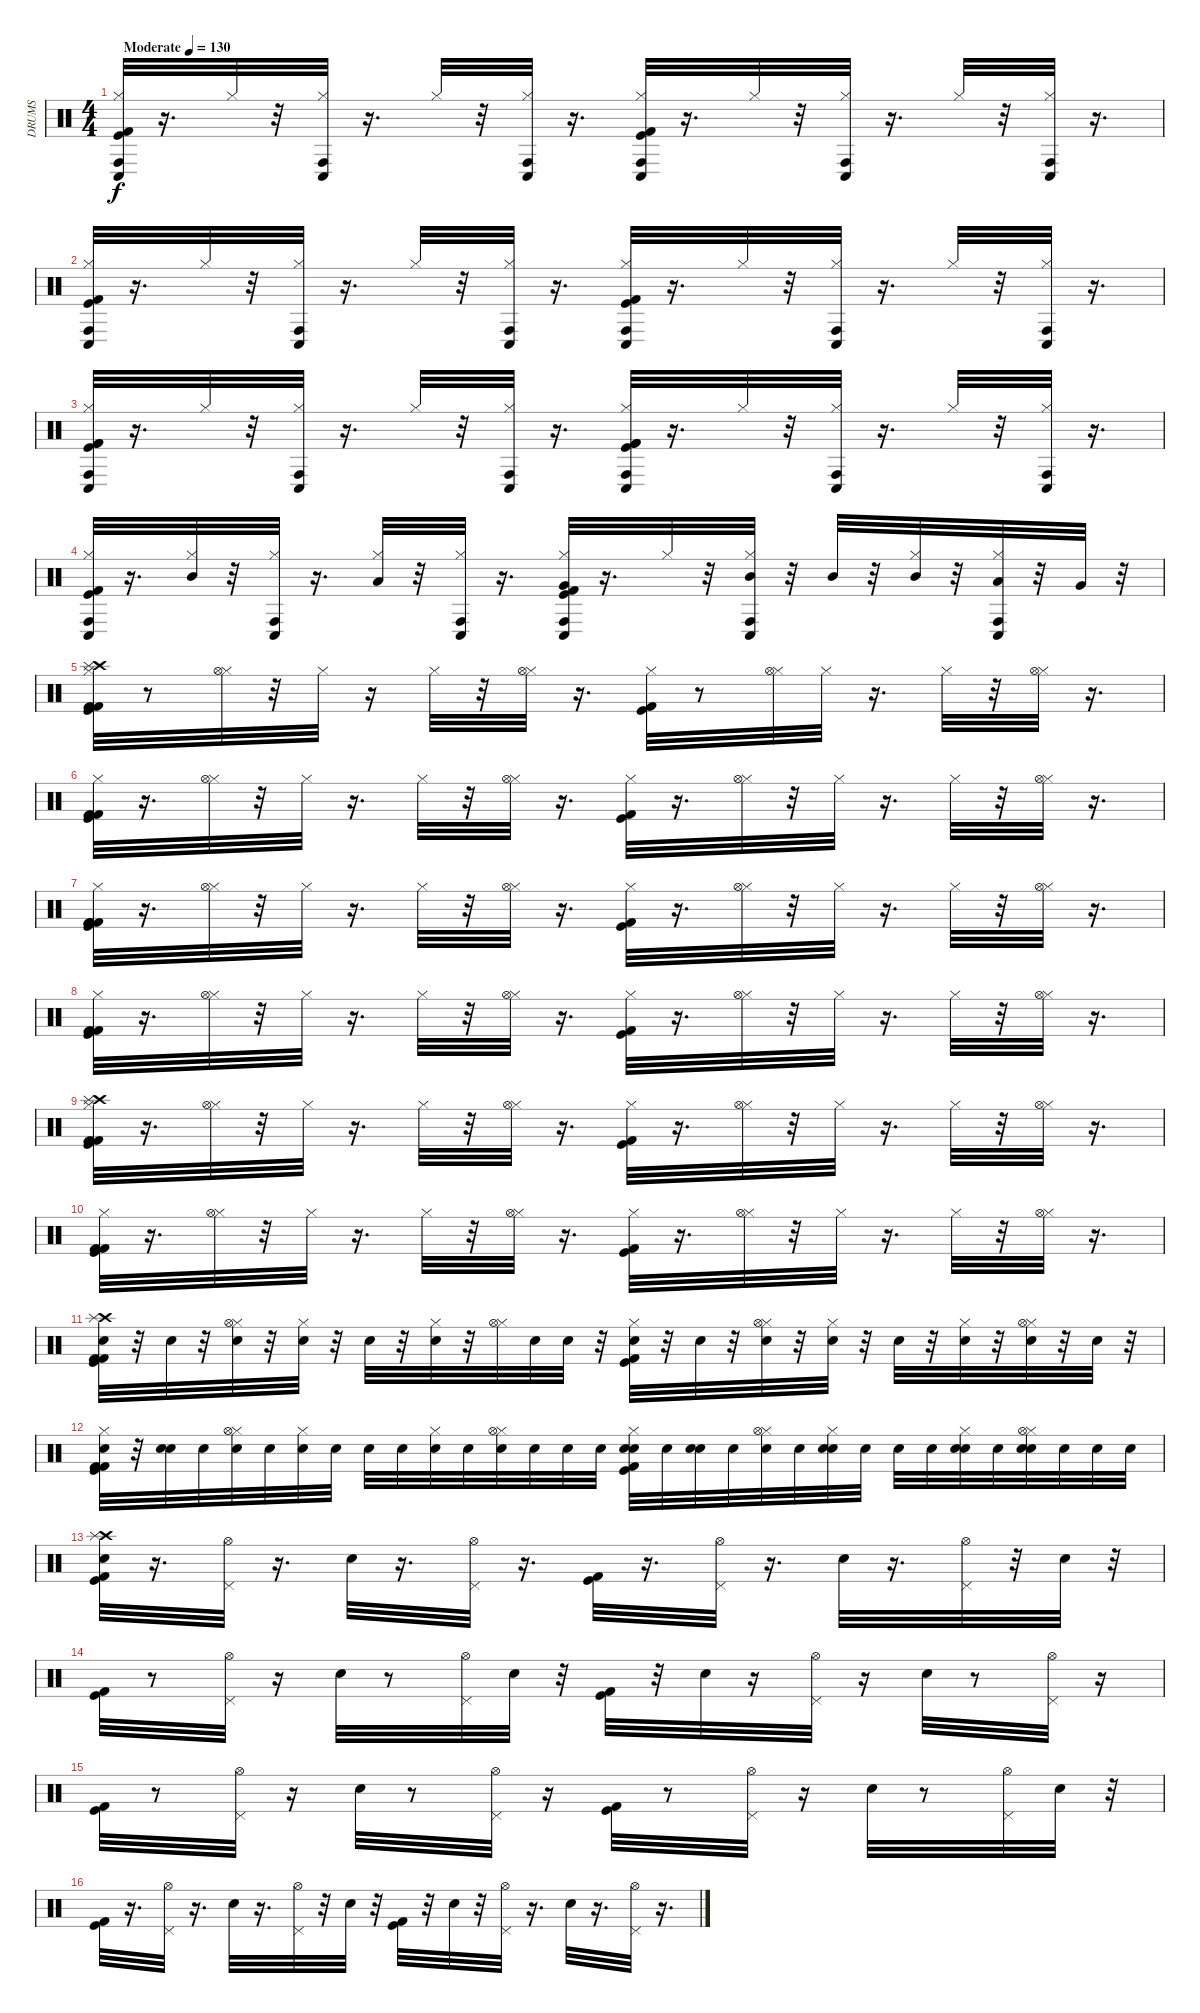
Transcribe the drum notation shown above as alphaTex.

\track ("DRUMS" "DRUMS") {instrument percussion}
\staff {score}
\articulation defaults
\ts (4 4)
\tempo (130 "Moderate")
\clef neutral
\ks c
("Kick (hit) 2" "Kick (hit)" "Conga low (hit)" "Conga high (hit)" "Hi-Hat (closed)").32{dy f} r.16{d} "Hi-Hat (closed)".32 r.32 ("Hi-Hat (closed)" "Conga low (hit)" "Conga high (hit)").32 r.16{d} "Hi-Hat (closed)".32 r.32 ("Hi-Hat (closed)" "Conga low (hit)" "Conga high (hit)").32 r.16{d} ("Kick (hit) 2" "Kick (hit)" "Hi-Hat (closed)" "Conga high (hit)" "Conga low (hit)").32 r.16{d} "Hi-Hat (closed)".32 r.32 ("Hi-Hat (closed)" "Conga low (hit)" "Conga high (hit)").32 r.16{d} "Hi-Hat (closed)".32 r.32 ("Hi-Hat (closed)" "Conga low (hit)" "Conga high (hit)").32 r.16{d} |
("Kick (hit) 2" "Kick (hit)" "Conga low (hit)" "Conga high (hit)" "Hi-Hat (closed)").32 r.16{d} "Hi-Hat (closed)".32 r.32 ("Hi-Hat (closed)" "Conga low (hit)" "Conga high (hit)").32 r.16{d} "Hi-Hat (closed)".32 r.32 ("Hi-Hat (closed)" "Conga low (hit)" "Conga high (hit)").32 r.16{d} ("Kick (hit) 2" "Kick (hit)" "Hi-Hat (closed)" "Conga high (hit)" "Conga low (hit)").32 r.16{d} "Hi-Hat (closed)".32 r.32 ("Hi-Hat (closed)" "Conga low (hit)" "Conga high (hit)").32 r.16{d} "Hi-Hat (closed)".32 r.32 ("Hi-Hat (closed)" "Conga low (hit)" "Conga high (hit)").32 r.16{d} |
("Kick (hit) 2" "Kick (hit)" "Kick (hit) 2" "Conga low (hit)" "Conga high (hit)" "Hi-Hat (closed)").32 r.16{d} "Hi-Hat (closed)".32 r.32 ("Hi-Hat (closed)" "Conga low (hit)" "Conga high (hit)").32 r.16{d} "Hi-Hat (closed)".32 r.32 ("Hi-Hat (closed)" "Conga low (hit)" "Conga high (hit)").32 r.16{d} ("Kick (hit) 2" "Kick (hit) 2" "Kick (hit)" "Hi-Hat (closed)" "Conga high (hit)" "Conga low (hit)").32 r.16{d} "Hi-Hat (closed)".32 r.32 ("Hi-Hat (closed)" "Conga low (hit)" "Conga high (hit)").32 r.16{d} "Hi-Hat (closed)".32 r.32 ("Hi-Hat (closed)" "Conga low (hit)" "Conga high (hit)").32 r.16{d} |
("Kick (hit)" "Kick (hit) 2" "Conga low (hit)" "Conga high (hit)" "Hi-Hat (closed)").32 r.16{d} ("Mid Tom (hit)" "Hi-Hat (closed)").32 r.32 ("Hi-Hat (closed)" "Conga low (hit)" "Conga high (hit)").32 r.16{d} ("Low Tom (hit)" "Hi-Hat (closed)").32 r.32 ("Hi-Hat (closed)" "Conga low (hit)" "Conga high (hit)").32 r.16{d} ("Kick (hit) 2" "Kick (hit)" "Hi-Hat (closed)" "Very Low Tom (hit)" "Conga high (hit)" "Conga low (hit)").32 r.16{d} "Hi-Hat (closed)".32 r.32 ("Hi-Hat (closed)" "Conga low (hit)" "Conga high (hit)" "Mid Tom (hit)").32 r.32 "Mid Tom (hit)".32 r.32 ("Mid Tom (hit)" "Hi-Hat (closed)").32 r.32 ("Low Tom (hit)" "Hi-Hat (closed)" "Conga low (hit)" "Conga high (hit)").32 r.32 "Very Low Tom (hit)".32 r.32 |
("Kick (hit) 2" "Kick (hit)" "Kick (hit) 2" "Crash high (hit)" "Splash (hit)" "Hi-Hat (closed)").32 r.8 ("Hi-Hat (closed)" "Hi-Hat (open)").32 r.32 "Hi-Hat (closed)".32 r.16 "Hi-Hat (closed)".32 r.32 ("Hi-Hat (closed)" "Hi-Hat (open)").32 r.16{d} ("Kick (hit) 2" "Kick (hit)" "Hi-Hat (closed)").32 r.8 ("Hi-Hat (closed)" "Hi-Hat (open)").32 "Hi-Hat (closed)".32 r.16{d} "Hi-Hat (closed)".32 r.32 ("Hi-Hat (closed)" "Hi-Hat (open)").32 r.16{d} |
("Kick (hit) 2" "Kick (hit)" "Kick (hit) 2" "Hi-Hat (closed)").32 r.16{d} ("Hi-Hat (closed)" "Hi-Hat (open)").32 r.32 "Hi-Hat (closed)".32 r.16{d} "Hi-Hat (closed)".32 r.32 ("Hi-Hat (closed)" "Hi-Hat (open)").32 r.16{d} ("Kick (hit) 2" "Kick (hit)" "Hi-Hat (closed)").32 r.16{d} ("Hi-Hat (closed)" "Hi-Hat (open)").32 r.32 "Hi-Hat (closed)".32 r.16{d} "Hi-Hat (closed)".32 r.32 ("Hi-Hat (closed)" "Hi-Hat (open)").32 r.16{d} |
("Kick (hit) 2" "Kick (hit) 2" "Kick (hit)" "Kick (hit) 2" "Hi-Hat (closed)").32 r.16{d} ("Hi-Hat (closed)" "Hi-Hat (open)").32 r.32 "Hi-Hat (closed)".32 r.16{d} "Hi-Hat (closed)".32 r.32 ("Hi-Hat (closed)" "Hi-Hat (open)").32 r.16{d} ("Kick (hit) 2" "Kick (hit)" "Hi-Hat (closed)").32 r.16{d} ("Hi-Hat (closed)" "Hi-Hat (open)").32 r.32 "Hi-Hat (closed)".32 r.16{d} "Hi-Hat (closed)".32 r.32 ("Hi-Hat (closed)" "Hi-Hat (open)").32 r.16{d} |
("Kick (hit) 2" "Kick (hit)" "Kick (hit) 2" "Hi-Hat (closed)").32 r.16{d} ("Hi-Hat (closed)" "Hi-Hat (open)").32 r.32 "Hi-Hat (closed)".32 r.16{d} "Hi-Hat (closed)".32 r.32 ("Hi-Hat (closed)" "Hi-Hat (open)").32 r.16{d} ("Kick (hit) 2" "Kick (hit)" "Hi-Hat (closed)").32 r.16{d} ("Hi-Hat (closed)" "Hi-Hat (open)").32 r.32 "Hi-Hat (closed)".32 r.16{d} "Hi-Hat (closed)".32 r.32 ("Hi-Hat (closed)" "Hi-Hat (open)").32 r.16{d} |
("Kick (hit) 2" "Kick (hit)" "Kick (hit) 2" "Crash high (hit)" "Splash (hit)" "Hi-Hat (closed)").32 r.16{d} ("Hi-Hat (closed)" "Hi-Hat (open)").32 r.32 "Hi-Hat (closed)".32 r.16{d} "Hi-Hat (closed)".32 r.32 ("Hi-Hat (closed)" "Hi-Hat (open)").32 r.16{d} ("Kick (hit) 2" "Kick (hit)" "Hi-Hat (closed)").32 r.16{d} ("Hi-Hat (closed)" "Hi-Hat (open)").32 r.32 "Hi-Hat (closed)".32 r.16{d} "Hi-Hat (closed)".32 r.32 ("Hi-Hat (closed)" "Hi-Hat (open)").32 r.16{d} |
("Kick (hit) 2" "Kick (hit)" "Kick (hit) 2" "Hi-Hat (closed)").32 r.16{d} ("Hi-Hat (closed)" "Hi-Hat (open)").32 r.32 "Hi-Hat (closed)".32 r.16{d} "Hi-Hat (closed)".32 r.32 ("Hi-Hat (closed)" "Hi-Hat (open)").32 r.16{d} ("Kick (hit) 2" "Kick (hit)" "Hi-Hat (closed)").32 r.16{d} ("Hi-Hat (closed)" "Hi-Hat (open)").32 r.32 "Hi-Hat (closed)".32 r.16{d} "Hi-Hat (closed)".32 r.32 ("Hi-Hat (closed)" "Hi-Hat (open)").32 r.16{d} |
("Kick (hit) 2" "Kick (hit)" "Kick (hit) 2" "Crash high (hit)" "Splash (hit)" "Snare (hit) 2").32 r.32 "Snare (hit) 2".32 r.32 ("Snare (hit) 2" "Hi-Hat (closed)" "Hi-Hat (open)").32 r.32 ("Snare (hit) 2" "Hi-Hat (closed)").32 r.32 "Snare (hit) 2".32 r.32 ("Hi-Hat (closed)" "Snare (hit) 2").32 r.32 ("Hi-Hat (closed)" "Hi-Hat (open)").32 "Snare (hit) 2".32 "Snare (hit) 2".32 r.32 ("Kick (hit) 2" "Kick (hit)" "Hi-Hat (closed)" "Snare (hit) 2").32 r.32 "Snare (hit) 2".32 r.32 ("Hi-Hat (closed)" "Hi-Hat (open)" "Snare (hit) 2").32 r.32 ("Hi-Hat (closed)" "Snare (hit) 2").32 r.32 "Snare (hit) 2".32 r.32 ("Hi-Hat (closed)" "Snare (hit) 2").32 r.32 ("Hi-Hat (closed)" "Hi-Hat (open)" "Snare (hit) 2").32 r.32 "Snare (hit) 2".32 r.32 |
("Kick (hit) 2" "Kick (hit)" "Kick (hit) 2" "Hi-Hat (closed)" "Snare (hit) 2").32 r.32 ("Snare (hit) 2" "Snare (hit) 2").32 "Snare (hit) 2".32 ("Hi-Hat (closed)" "Hi-Hat (open)" "Snare (hit) 2").32 "Snare (hit) 2".32 ("Snare (hit) 2" "Hi-Hat (closed)").32 "Snare (hit) 2".32 "Snare (hit) 2".32 "Snare (hit) 2".32 ("Hi-Hat (closed)" "Snare (hit) 2").32 "Snare (hit) 2".32 ("Hi-Hat (closed)" "Hi-Hat (open)" "Snare (hit) 2").32 "Snare (hit) 2".32 "Snare (hit) 2".32 "Snare (hit) 2".32 ("Kick (hit) 2" "Kick (hit)" "Hi-Hat (closed)" "Electric Snare (hit)" "Snare (hit) 2").32 "Snare (hit) 2".32 ("Electric Snare (hit)" "Snare (hit) 2").32 "Snare (hit) 2".32 ("Hi-Hat (closed)" "Hi-Hat (open)" "Snare (hit) 2").32 "Snare (hit) 2".32 ("Snare (hit) 2" "Hi-Hat (closed)" "Electric Snare (hit)").32 "Snare (hit) 2".32 "Snare (hit) 2".32 "Snare (hit) 2".32 ("Hi-Hat (closed)" "Electric Snare (hit)" "Snare (hit) 2").32 "Snare (hit) 2".32 ("Hi-Hat (closed)" "Electric Snare (hit)" "Hi-Hat (open)" "Snare (hit) 2").32 "Snare (hit) 2".32 "Snare (hit) 2".32 "Snare (hit) 2".32 |
("Crash high (hit)" "Splash (hit)" "Kick (hit)" "Kick (hit) 2" "Snare (hit) 2").32 r.16{d} ("Pedal Hi-Hat (hit)" "Hi-Hat (open)").32 r.16{d} "Electric Snare (hit)".32 r.16{d} ("Pedal Hi-Hat (hit)" "Hi-Hat (open)").32 r.16{d} ("Kick (hit) 2" "Kick (hit)").32 r.16{d} ("Pedal Hi-Hat (hit)" "Hi-Hat (open)").32 r.16{d} "Electric Snare (hit)".32 r.16{d} ("Pedal Hi-Hat (hit)" "Hi-Hat (open)").32 r.32 "Electric Snare (hit)".32 r.32 |
("Kick (hit)" "Kick (hit) 2").32 r.8 ("Pedal Hi-Hat (hit)" "Hi-Hat (open)").32 r.16 "Electric Snare (hit)".32 r.8 ("Pedal Hi-Hat (hit)" "Hi-Hat (open)").32 "Electric Snare (hit)".32 r.32 ("Kick (hit) 2" "Kick (hit)").32 r.32 "Electric Snare (hit)".32 r.16 ("Pedal Hi-Hat (hit)" "Hi-Hat (open)").32 r.16 "Electric Snare (hit)".32 r.8 ("Pedal Hi-Hat (hit)" "Hi-Hat (open)").32 r.16 |
("Kick (hit)" "Kick (hit) 2").32 r.8 ("Pedal Hi-Hat (hit)" "Hi-Hat (open)").32 r.16 "Electric Snare (hit)".32 r.8 ("Pedal Hi-Hat (hit)" "Hi-Hat (open)").32 r.16 ("Kick (hit) 2" "Kick (hit)").32 r.8 ("Pedal Hi-Hat (hit)" "Hi-Hat (open)").32 r.16 "Electric Snare (hit)".32 r.8 ("Pedal Hi-Hat (hit)" "Hi-Hat (open)").32 "Electric Snare (hit)".32 r.32 |
("Kick (hit)" "Kick (hit) 2").32 r.16{d} ("Pedal Hi-Hat (hit)" "Hi-Hat (open)").32 r.16{d} "Electric Snare (hit)".32 r.16{d} ("Pedal Hi-Hat (hit)" "Hi-Hat (open)").32 r.32 "Electric Snare (hit)".32 r.32 ("Kick (hit) 2" "Kick (hit)").32 r.32 "Electric Snare (hit)".32 r.32 ("Pedal Hi-Hat (hit)" "Hi-Hat (open)").32 r.16{d} "Electric Snare (hit)".32 r.16{d} ("Pedal Hi-Hat (hit)" "Hi-Hat (open)").32 r.16{d}
